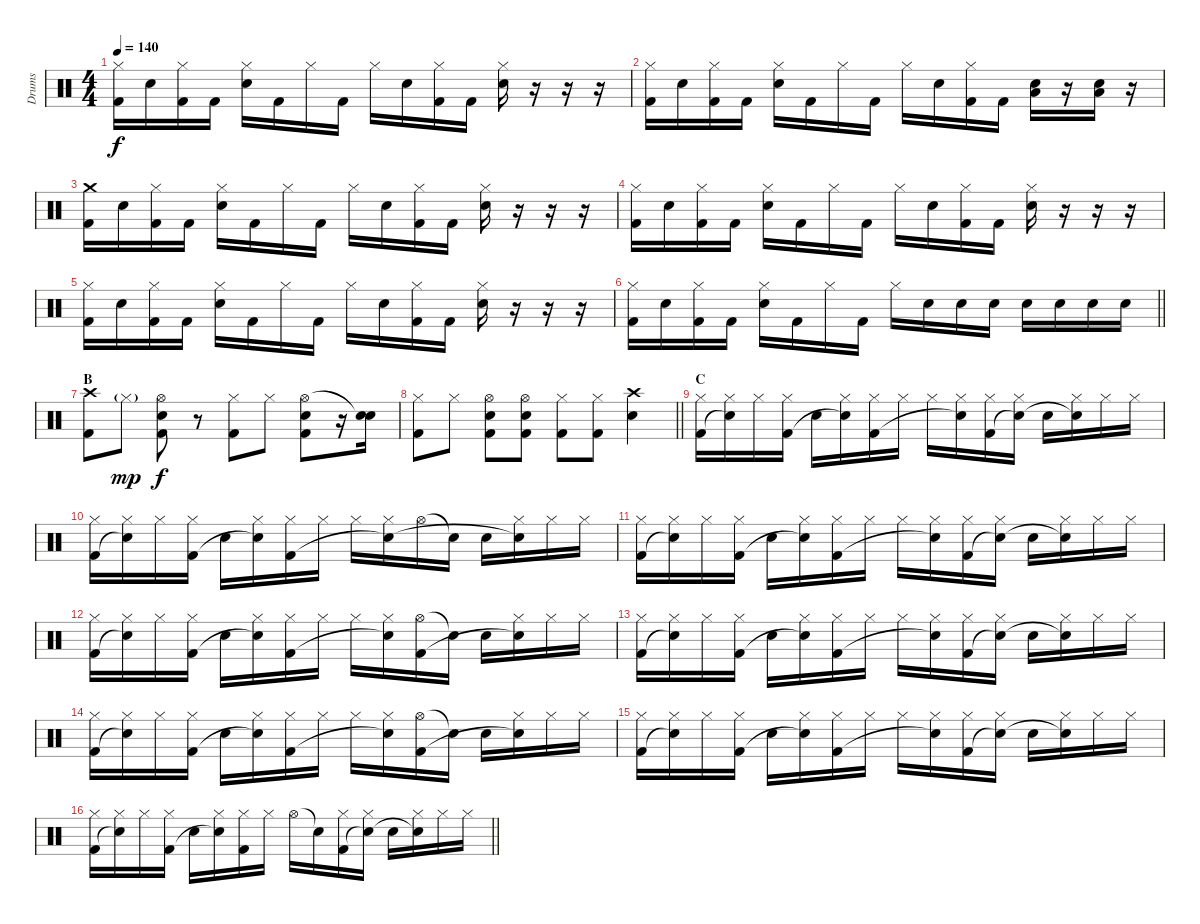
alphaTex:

\track ("Drums" "Drums") {instrument percussion}
\staff {score}
\articulation defaults
\ts (4 4)
\tempo 140
\clef neutral
\ks c
("Hi-Hat (closed)" "Kick (hit) 2").16{dy f} "Snare (hit) 2".16 ("Hi-Hat (closed)" "Kick (hit) 2").16 "Kick (hit) 2".16 ("Hi-Hat (closed)" "Snare (hit) 2").16 "Kick (hit) 2".16 "Hi-Hat (closed)".16 "Kick (hit) 2".16 "Hi-Hat (closed)".16 "Snare (hit) 2".16 ("Hi-Hat (closed)" "Kick (hit) 2").16 "Kick (hit) 2".16 ("Hi-Hat (closed)" "Snare (hit) 2").16 r.16 r.16 r.16 |
("Hi-Hat (closed)" "Kick (hit) 2").16 "Snare (hit) 2".16 ("Hi-Hat (closed)" "Kick (hit) 2").16 "Kick (hit) 2".16 ("Hi-Hat (closed)" "Snare (hit) 2").16 "Kick (hit) 2".16 "Hi-Hat (closed)".16 "Kick (hit) 2".16 "Hi-Hat (closed)".16 "Snare (hit) 2".16 ("Hi-Hat (closed)" "Kick (hit) 2").16 "Kick (hit) 2".16 ("Low Tom (hit)" "Snare (hit) 2").16 r.16 ("Low Tom (hit)" "Snare (hit) 2").16 r.16 |
("Crash medium (hit)" "Kick (hit) 2").16 "Snare (hit) 2".16 ("Hi-Hat (closed)" "Kick (hit) 2").16 "Kick (hit) 2".16 ("Hi-Hat (closed)" "Snare (hit) 2").16 "Kick (hit) 2".16 "Hi-Hat (closed)".16 "Kick (hit) 2".16 "Hi-Hat (closed)".16 "Snare (hit) 2".16 ("Hi-Hat (closed)" "Kick (hit) 2").16 "Kick (hit) 2".16 ("Hi-Hat (closed)" "Snare (hit) 2").16 r.16 r.16 r.16 |
("Hi-Hat (closed)" "Kick (hit) 2").16 "Snare (hit) 2".16 ("Hi-Hat (closed)" "Kick (hit) 2").16 "Kick (hit) 2".16 ("Hi-Hat (closed)" "Snare (hit) 2").16 "Kick (hit) 2".16 "Hi-Hat (closed)".16 "Kick (hit) 2".16 "Hi-Hat (closed)".16 "Snare (hit) 2".16 ("Hi-Hat (closed)" "Kick (hit) 2").16 "Kick (hit) 2".16 ("Hi-Hat (closed)" "Snare (hit) 2").16 r.16 r.16 r.16 |
("Hi-Hat (closed)" "Kick (hit) 2").16 "Snare (hit) 2".16 ("Hi-Hat (closed)" "Kick (hit) 2").16 "Kick (hit) 2".16 ("Hi-Hat (closed)" "Snare (hit) 2").16 "Kick (hit) 2".16 "Hi-Hat (closed)".16 "Kick (hit) 2".16 "Hi-Hat (closed)".16 "Snare (hit) 2".16 ("Hi-Hat (closed)" "Kick (hit) 2").16 "Kick (hit) 2".16 ("Hi-Hat (closed)" "Snare (hit) 2").16 r.16 r.16 r.16 |
\barLineRight lightlight
("Hi-Hat (closed)" "Kick (hit) 2").16 "Snare (hit) 2".16 ("Hi-Hat (closed)" "Kick (hit) 2").16 "Kick (hit) 2".16 ("Hi-Hat (closed)" "Snare (hit) 2").16 "Kick (hit) 2".16 "Hi-Hat (closed)".16 "Kick (hit) 2".16 "Hi-Hat (closed)".16 "Snare (hit) 2".16 "Snare (hit) 2".16 "Snare (hit) 2".16 "Snare (hit) 2".16 "Snare (hit) 2".16 "Snare (hit) 2".16 "Snare (hit) 2".16 |
\section ("" "B")
("Crash high (hit)" "Kick (hit) 2").8 "Hi-Hat (closed)"{g}.8{dy mp} ("Hi-Hat (open)" "Snare (hit) 2" "Kick (hit) 2").8{dy f} r.8 ("Hi-Hat (closed)" "Kick (hit) 2").8 "Hi-Hat (closed)".8 ("Hi-Hat (open)" "Snare (hit) 2" "Kick (hit) 2").8 r.16 ("Snare (hit)"{t} "Snare (hit) 2").16 |
\barLineRight lightlight
("Hi-Hat (closed)" "Kick (hit) 2").8 "Hi-Hat (closed)".8 ("Hi-Hat (open)" "Snare (hit) 2" "Kick (hit) 2").8 ("Hi-Hat (open)" "Snare (hit) 2" "Kick (hit) 2").8 ("Hi-Hat (closed)" "Kick (hit) 2").8 ("Hi-Hat (closed)" "Kick (hit) 2").8 ("Crash high (hit)" "Snare (hit) 2").4 |
\section ("" "C")
("Hi-Hat (closed)" "Kick (hit) 2").16 ("Hi-Hat (closed)" "Snare (hit)"{t}).16 "Hi-Hat (closed)".16 ("Hi-Hat (closed)" "Kick (hit) 2").16 "Snare (hit) 2".16 ("Hi-Hat (closed)" "Snare (hit)"{t}).16 ("Hi-Hat (closed)" "Kick (hit) 2").16 "Hi-Hat (closed)".16 "Hi-Hat (closed)".16 ("Hi-Hat (closed)" "Snare (hit)"{t}).16 ("Hi-Hat (closed)" "Kick (hit) 2").16 ("Hi-Hat (closed)" "Snare (hit)"{t}).16 "Snare (hit) 2".16 ("Hi-Hat (closed)" "Snare (hit)"{t}).16 "Hi-Hat (closed)".16 "Hi-Hat (closed)".16 |
("Hi-Hat (closed)" "Kick (hit) 2").16 ("Hi-Hat (closed)" "Snare (hit)"{t}).16 "Hi-Hat (closed)".16 ("Hi-Hat (closed)" "Kick (hit) 2").16 "Snare (hit) 2".16 ("Hi-Hat (closed)" "Snare (hit)"{t}).16 ("Hi-Hat (closed)" "Kick (hit) 2").16 "Hi-Hat (closed)".16 "Hi-Hat (closed)".16 ("Hi-Hat (closed)" "Snare (hit)"{t}).16 "Hi-Hat (open)".16 "Snare (hit)"{t}.16 "Snare (hit) 2".16 ("Hi-Hat (closed)" "Snare (hit)"{t}).16 "Hi-Hat (closed)".16 "Hi-Hat (closed)".16 |
("Hi-Hat (closed)" "Kick (hit) 2").16 ("Hi-Hat (closed)" "Snare (hit)"{t}).16 "Hi-Hat (closed)".16 ("Hi-Hat (closed)" "Kick (hit) 2").16 "Snare (hit) 2".16 ("Hi-Hat (closed)" "Snare (hit)"{t}).16 ("Hi-Hat (closed)" "Kick (hit) 2").16 "Hi-Hat (closed)".16 "Hi-Hat (closed)".16 ("Hi-Hat (closed)" "Snare (hit)"{t}).16 ("Hi-Hat (closed)" "Kick (hit) 2").16 ("Hi-Hat (closed)" "Snare (hit)"{t}).16 "Snare (hit) 2".16 ("Hi-Hat (closed)" "Snare (hit)"{t}).16 "Hi-Hat (closed)".16 "Hi-Hat (closed)".16 |
("Hi-Hat (closed)" "Kick (hit) 2").16 ("Hi-Hat (closed)" "Snare (hit)"{t}).16 "Hi-Hat (closed)".16 ("Hi-Hat (closed)" "Kick (hit) 2").16 "Snare (hit) 2".16 ("Hi-Hat (closed)" "Snare (hit)"{t}).16 ("Hi-Hat (closed)" "Kick (hit) 2").16 "Hi-Hat (closed)".16 "Hi-Hat (closed)".16 ("Hi-Hat (closed)" "Snare (hit)"{t}).16 ("Hi-Hat (open)" "Kick (hit) 2").16 "Snare (hit)"{t}.16 "Snare (hit) 2".16 ("Hi-Hat (closed)" "Snare (hit)"{t}).16 "Hi-Hat (closed)".16 "Hi-Hat (closed)".16 |
("Hi-Hat (closed)" "Kick (hit) 2").16 ("Hi-Hat (closed)" "Snare (hit)"{t}).16 "Hi-Hat (closed)".16 ("Hi-Hat (closed)" "Kick (hit) 2").16 "Snare (hit) 2".16 ("Hi-Hat (closed)" "Snare (hit)"{t}).16 ("Hi-Hat (closed)" "Kick (hit) 2").16 "Hi-Hat (closed)".16 "Hi-Hat (closed)".16 ("Hi-Hat (closed)" "Snare (hit)"{t}).16 ("Hi-Hat (closed)" "Kick (hit) 2").16 ("Hi-Hat (closed)" "Snare (hit)"{t}).16 "Snare (hit) 2".16 ("Hi-Hat (closed)" "Snare (hit)"{t}).16 "Hi-Hat (closed)".16 "Hi-Hat (closed)".16 |
("Hi-Hat (closed)" "Kick (hit) 2").16 ("Hi-Hat (closed)" "Snare (hit)"{t}).16 "Hi-Hat (closed)".16 ("Hi-Hat (closed)" "Kick (hit) 2").16 "Snare (hit) 2".16 ("Hi-Hat (closed)" "Snare (hit)"{t}).16 ("Hi-Hat (closed)" "Kick (hit) 2").16 "Hi-Hat (closed)".16 "Hi-Hat (closed)".16 ("Hi-Hat (closed)" "Snare (hit)"{t}).16 ("Hi-Hat (open)" "Kick (hit) 2").16 "Snare (hit)"{t}.16 "Snare (hit) 2".16 ("Hi-Hat (closed)" "Snare (hit)"{t}).16 "Hi-Hat (closed)".16 "Hi-Hat (closed)".16 |
("Hi-Hat (closed)" "Kick (hit) 2").16 ("Hi-Hat (closed)" "Snare (hit)"{t}).16 "Hi-Hat (closed)".16 ("Hi-Hat (closed)" "Kick (hit) 2").16 "Snare (hit) 2".16 ("Hi-Hat (closed)" "Snare (hit)"{t}).16 ("Hi-Hat (closed)" "Kick (hit) 2").16 "Hi-Hat (closed)".16 "Hi-Hat (closed)".16 ("Hi-Hat (closed)" "Snare (hit)"{t}).16 ("Hi-Hat (closed)" "Kick (hit) 2").16 ("Hi-Hat (closed)" "Snare (hit)"{t}).16 "Snare (hit) 2".16 ("Hi-Hat (closed)" "Snare (hit)"{t}).16 "Hi-Hat (closed)".16 "Hi-Hat (closed)".16 |
\barLineRight lightlight
("Hi-Hat (closed)" "Kick (hit) 2").16 ("Hi-Hat (closed)" "Snare (hit)"{t}).16 "Hi-Hat (closed)".16 ("Hi-Hat (closed)" "Kick (hit) 2").16 "Snare (hit) 2".16 ("Hi-Hat (closed)" "Snare (hit)"{t}).16 ("Hi-Hat (closed)" "Kick (hit) 2").16 "Hi-Hat (closed)".16 "Hi-Hat (open)".16 "Snare (hit)"{t}.16 ("Hi-Hat (closed)" "Kick (hit) 2").16 ("Hi-Hat (closed)" "Snare (hit)"{t}).16 "Snare (hit) 2".16 ("Hi-Hat (closed)" "Snare (hit)"{t}).16 "Hi-Hat (closed)".16 "Hi-Hat (closed)".16
